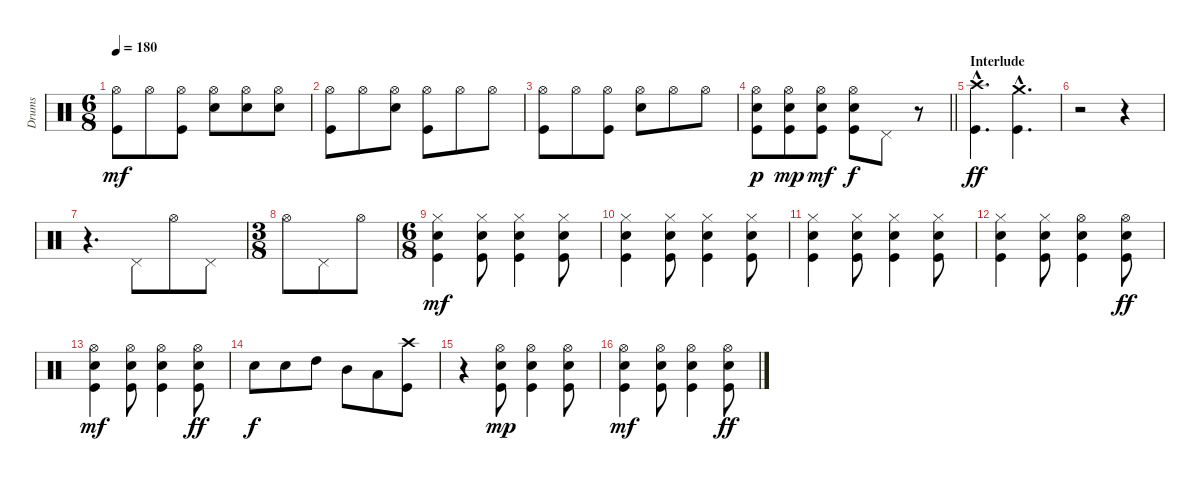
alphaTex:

\track ("Drums" "Drums") {instrument percussion}
\staff {score}
\articulation defaults
\ts (6 8)
\tempo 180
\clef neutral
\ks c
("Hi-Hat (open)" "Kick (hit)").8{dy mf} "Hi-Hat (open)".8 ("Hi-Hat (open)" "Kick (hit)").8 ("Hi-Hat (open)" "Electric Snare (hit)").8 ("Hi-Hat (open)" "Electric Snare (hit)").8 ("Hi-Hat (open)" "Electric Snare (hit)").8 |
("Hi-Hat (open)" "Kick (hit)").8 "Hi-Hat (open)".8 ("Hi-Hat (open)" "Electric Snare (hit)").8 ("Hi-Hat (open)" "Kick (hit)").8 "Hi-Hat (open)".8 "Hi-Hat (open)".8 |
("Hi-Hat (open)" "Kick (hit)").8 "Hi-Hat (open)".8 ("Hi-Hat (open)" "Kick (hit)").8 ("Hi-Hat (open)" "Electric Snare (hit)").8 "Hi-Hat (open)".8 "Hi-Hat (open)".8 |
\barLineRight lightlight
("Hi-Hat (open)" "Electric Snare (hit)" "Kick (hit)").8{dy p} ("Hi-Hat (open)" "Electric Snare (hit)" "Kick (hit)").8{dy mp} ("Hi-Hat (open)" "Electric Snare (hit)" "Kick (hit)").8{dy mf} ("Hi-Hat (open)" "Electric Snare (hit)" "Kick (hit)").8{dy f} "Pedal Hi-Hat (hit)".8 r.8 |
\section ("" "Interlude")
("Crash high (hit)"{hac} "Kick (hit)"{hac}).4{d dy ff} ("Crash medium (hit)"{hac} "Kick (hit)"{hac}).4{d} |
r.2 r.4 |
r.4{d} "Pedal Hi-Hat (hit)".8 "Hi-Hat (open)".8 "Pedal Hi-Hat (hit)".8 |
\ts (3 8)
"Hi-Hat (open)".8 "Pedal Hi-Hat (hit)".8 "Hi-Hat (open)".8 |
\ts (6 8)
("Hi-Hat (closed)" "Electric Snare (hit)" "Kick (hit)").4{dy mf} ("Hi-Hat (closed)" "Electric Snare (hit)" "Kick (hit)").8 ("Hi-Hat (closed)" "Electric Snare (hit)" "Kick (hit)").4 ("Hi-Hat (closed)" "Electric Snare (hit)" "Kick (hit)").8 |
("Hi-Hat (closed)" "Electric Snare (hit)" "Kick (hit)").4 ("Hi-Hat (closed)" "Electric Snare (hit)" "Kick (hit)").8 ("Hi-Hat (closed)" "Electric Snare (hit)" "Kick (hit)").4 ("Hi-Hat (closed)" "Electric Snare (hit)" "Kick (hit)").8 |
("Hi-Hat (closed)" "Electric Snare (hit)" "Kick (hit)").4 ("Hi-Hat (closed)" "Electric Snare (hit)" "Kick (hit)").8 ("Hi-Hat (closed)" "Electric Snare (hit)" "Kick (hit)").4 ("Hi-Hat (closed)" "Electric Snare (hit)" "Kick (hit)").8 |
("Hi-Hat (closed)" "Electric Snare (hit)" "Kick (hit)").4 ("Hi-Hat (closed)" "Electric Snare (hit)" "Kick (hit)").8 ("Hi-Hat (open)" "Electric Snare (hit)" "Kick (hit)").4 ("Hi-Hat (open)" "Electric Snare (hit)" "Kick (hit)").8{dy ff} |
("Hi-Hat (open)" "Electric Snare (hit)" "Kick (hit)").4{dy mf} ("Hi-Hat (open)" "Electric Snare (hit)" "Kick (hit)").8 ("Hi-Hat (open)" "Electric Snare (hit)" "Kick (hit)").4 ("Hi-Hat (open)" "Electric Snare (hit)" "Kick (hit)").8{dy ff} |
"Electric Snare (hit)".8{dy f} "Electric Snare (hit)".8 "High Tom (hit)".8 "Mid Tom (hit)".8 "Low Tom (hit)".8 ("Crash high (hit)" "Kick (hit)").8 |
r.4 ("Hi-Hat (open)" "Electric Snare (hit)" "Kick (hit)").8{dy mp} ("Hi-Hat (open)" "Electric Snare (hit)" "Kick (hit)").4 ("Hi-Hat (open)" "Electric Snare (hit)" "Kick (hit)").8 |
("Hi-Hat (open)" "Electric Snare (hit)" "Kick (hit)").4{dy mf} ("Hi-Hat (open)" "Electric Snare (hit)" "Kick (hit)").8 ("Hi-Hat (open)" "Electric Snare (hit)" "Kick (hit)").4 ("Hi-Hat (open)" "Electric Snare (hit)" "Kick (hit)").8{dy ff}
